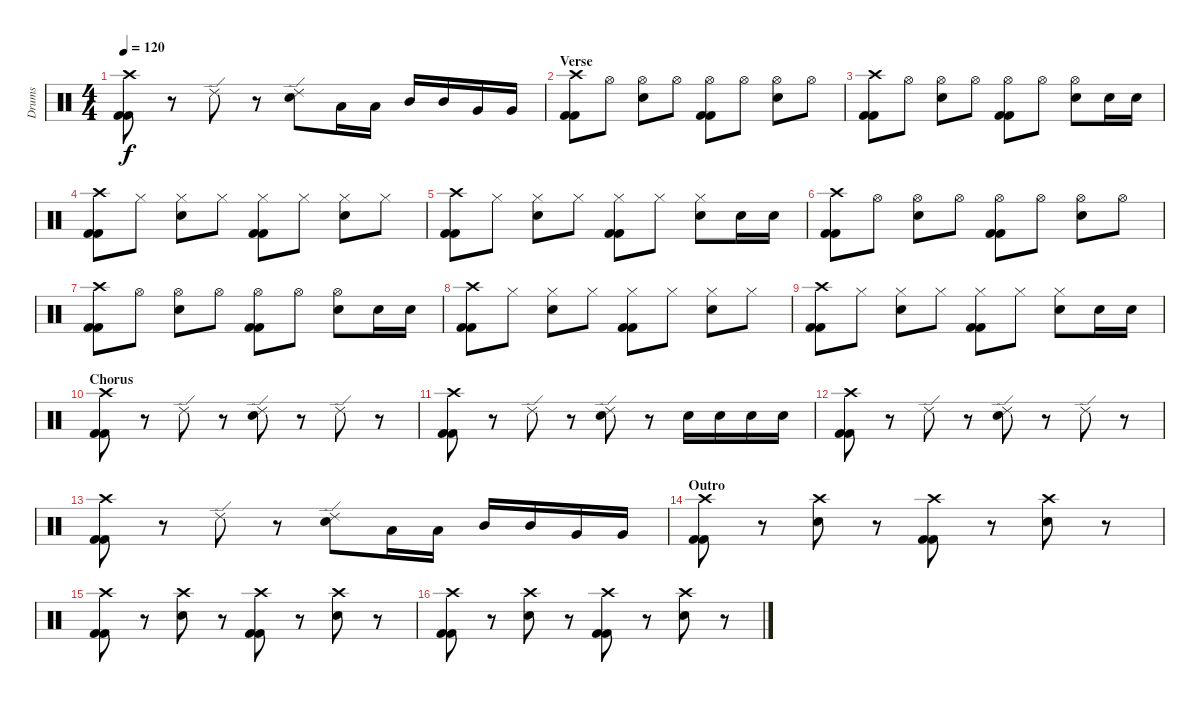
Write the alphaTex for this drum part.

\track ("Drums" "Drums") {instrument percussion}
\staff {score}
\articulation defaults
\ts (4 4)
\tempo 120
\clef neutral
\ks c
("Crash high (hit)" "Kick (hit) 2" "Kick (hit) 2").8{dy f} r.8 "Ride (edge) 2".8 r.8 ("Ride (edge) 2" "Electric Snare (hit)").8 "Low Tom (hit)".16 "Low Tom (hit)".16 "Mid Tom (hit)".16 "Mid Tom (hit)".16 "Very Low Tom (hit)".16 "Very Low Tom (hit)".16 |
\section ("" "Verse")
("Crash high (hit)" "Kick (hit) 2" "Kick (hit) 2").8 "Hi-Hat (open)".8 ("Hi-Hat (open)" "Electric Snare (hit)").8 "Hi-Hat (open)".8 ("Hi-Hat (open)" "Kick (hit) 2" "Kick (hit) 2").8 "Hi-Hat (open)".8 ("Hi-Hat (open)" "Electric Snare (hit)").8 "Hi-Hat (open)".8 |
("Crash high (hit)" "Kick (hit) 2" "Kick (hit) 2").8 "Hi-Hat (open)".8 ("Hi-Hat (open)" "Electric Snare (hit)").8 "Hi-Hat (open)".8 ("Hi-Hat (open)" "Kick (hit) 2" "Kick (hit) 2").8 "Hi-Hat (open)".8 ("Hi-Hat (open)" "Electric Snare (hit)").8 "Electric Snare (hit)".16 "Electric Snare (hit)".16 |
("Crash high (hit)" "Kick (hit) 2" "Kick (hit) 2").8 "Hi-Hat (closed)".8 ("Hi-Hat (closed)" "Electric Snare (hit)").8 "Hi-Hat (closed)".8 ("Hi-Hat (closed)" "Kick (hit) 2" "Kick (hit) 2").8 "Hi-Hat (closed)".8 ("Hi-Hat (closed)" "Electric Snare (hit)").8 "Hi-Hat (closed)".8 |
("Crash high (hit)" "Kick (hit) 2" "Kick (hit) 2").8 "Hi-Hat (closed)".8 ("Hi-Hat (closed)" "Electric Snare (hit)").8 "Hi-Hat (closed)".8 ("Hi-Hat (closed)" "Kick (hit) 2" "Kick (hit) 2").8 "Hi-Hat (closed)".8 ("Hi-Hat (closed)" "Electric Snare (hit)").8 "Electric Snare (hit)".16 "Electric Snare (hit)".16 |
("Crash high (hit)" "Kick (hit) 2" "Kick (hit) 2").8 "Hi-Hat (open)".8 ("Hi-Hat (open)" "Electric Snare (hit)").8 "Hi-Hat (open)".8 ("Hi-Hat (open)" "Kick (hit) 2" "Kick (hit) 2").8 "Hi-Hat (open)".8 ("Hi-Hat (open)" "Electric Snare (hit)").8 "Hi-Hat (open)".8 |
("Crash high (hit)" "Kick (hit) 2" "Kick (hit) 2").8 "Hi-Hat (open)".8 ("Hi-Hat (open)" "Electric Snare (hit)").8 "Hi-Hat (open)".8 ("Hi-Hat (open)" "Kick (hit) 2" "Kick (hit) 2").8 "Hi-Hat (open)".8 ("Hi-Hat (open)" "Electric Snare (hit)").8 "Electric Snare (hit)".16 "Electric Snare (hit)".16 |
("Crash high (hit)" "Kick (hit) 2" "Kick (hit) 2").8 "Hi-Hat (closed)".8 ("Hi-Hat (closed)" "Electric Snare (hit)").8 "Hi-Hat (closed)".8 ("Hi-Hat (closed)" "Kick (hit) 2" "Kick (hit) 2").8 "Hi-Hat (closed)".8 ("Hi-Hat (closed)" "Electric Snare (hit)").8 "Hi-Hat (closed)".8 |
("Crash high (hit)" "Kick (hit) 2" "Kick (hit) 2").8 "Hi-Hat (closed)".8 ("Hi-Hat (closed)" "Electric Snare (hit)").8 "Hi-Hat (closed)".8 ("Hi-Hat (closed)" "Kick (hit) 2" "Kick (hit) 2").8 "Hi-Hat (closed)".8 ("Hi-Hat (closed)" "Electric Snare (hit)").8 "Electric Snare (hit)".16 "Electric Snare (hit)".16 |
\section ("" "Chorus")
("Crash high (hit)" "Kick (hit) 2" "Kick (hit) 2").8 r.8 "Ride (edge) 2".8 r.8 ("Ride (edge) 2" "Electric Snare (hit)").8 r.8 "Ride (edge) 2".8 r.8 |
("Crash high (hit)" "Kick (hit) 2" "Kick (hit) 2").8 r.8 "Ride (edge) 2".8 r.8 ("Ride (edge) 2" "Electric Snare (hit)").8 r.8 "Electric Snare (hit)".16 "Electric Snare (hit)".16 "Electric Snare (hit)".16 "Electric Snare (hit)".16 |
("Crash high (hit)" "Kick (hit) 2" "Kick (hit) 2").8 r.8 "Ride (edge) 2".8 r.8 ("Ride (edge) 2" "Electric Snare (hit)").8 r.8 "Ride (edge) 2".8 r.8 |
("Crash high (hit)" "Kick (hit) 2" "Kick (hit) 2").8 r.8 "Ride (edge) 2".8 r.8 ("Ride (edge) 2" "Electric Snare (hit)").8 "Low Tom (hit)".16 "Low Tom (hit)".16 "Mid Tom (hit)".16 "Mid Tom (hit)".16 "Very Low Tom (hit)".16 "Very Low Tom (hit)".16 |
\section ("" "Outro")
("Crash high (hit)" "Kick (hit) 2" "Kick (hit) 2").8 r.8 ("Crash high (hit)" "Electric Snare (hit)").8 r.8 ("Crash high (hit)" "Kick (hit) 2" "Kick (hit) 2").8 r.8 ("Crash high (hit)" "Electric Snare (hit)").8 r.8 |
("Crash high (hit)" "Kick (hit) 2" "Kick (hit) 2").8 r.8 ("Crash high (hit)" "Electric Snare (hit)").8 r.8 ("Crash high (hit)" "Kick (hit) 2" "Kick (hit) 2").8 r.8 ("Crash high (hit)" "Electric Snare (hit)").8 r.8 |
("Crash high (hit)" "Kick (hit) 2" "Kick (hit) 2").8 r.8 ("Crash high (hit)" "Electric Snare (hit)").8 r.8 ("Crash high (hit)" "Kick (hit) 2" "Kick (hit) 2").8 r.8 ("Crash high (hit)" "Electric Snare (hit)").8 r.8
